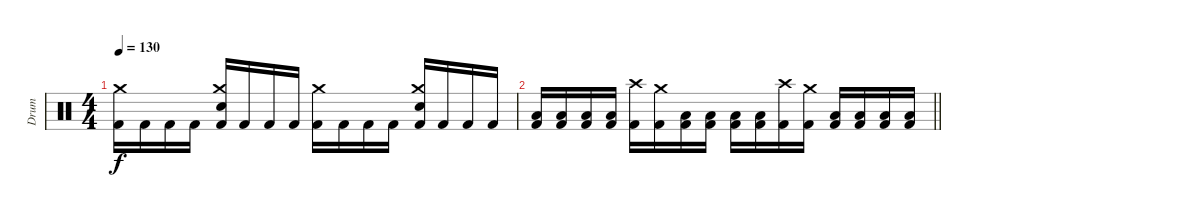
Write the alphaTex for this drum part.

\track ("Drum" "Drum") {instrument percussion}
\staff {score}
\articulation defaults
\ts (4 4)
\tempo 130
\clef neutral
\ks c
("Kick (hit) 2" "Crash medium (hit)").16{dy f} "Kick (hit) 2".16 "Kick (hit) 2".16 "Kick (hit) 2".16 ("Kick (hit) 2" "Electric Snare (hit)" "Crash medium (hit)").16 "Kick (hit) 2".16 "Kick (hit) 2".16 "Kick (hit) 2".16 ("Kick (hit) 2" "Crash medium (hit)").16 "Kick (hit) 2".16 "Kick (hit) 2".16 "Kick (hit) 2".16 ("Kick (hit) 2" "Electric Snare (hit)" "Crash medium (hit)").16 "Kick (hit) 2".16 "Kick (hit) 2".16 "Kick (hit) 2".16 |
\barLineRight lightlight
("Kick (hit) 2" "Low Floor Tom (hit)").16 ("Kick (hit) 2" "Low Floor Tom (hit)").16 ("Kick (hit) 2" "Low Floor Tom (hit)").16 ("Kick (hit) 2" "Low Floor Tom (hit)").16 ("Kick (hit) 2" "Crash high (hit)").16 ("Kick (hit) 2" "Crash medium (hit)").16 ("Kick (hit) 2" "Low Floor Tom (hit)").16 ("Kick (hit) 2" "Low Floor Tom (hit)").16 ("Kick (hit) 2" "Low Floor Tom (hit)").16 ("Kick (hit) 2" "Low Floor Tom (hit)").16 ("Kick (hit) 2" "Crash high (hit)").16 ("Kick (hit) 2" "Crash medium (hit)").16 ("Kick (hit) 2" "Low Floor Tom (hit)").16 ("Kick (hit) 2" "Low Floor Tom (hit)").16 ("Kick (hit) 2" "Low Floor Tom (hit)").16 ("Kick (hit) 2" "Low Floor Tom (hit)").16
